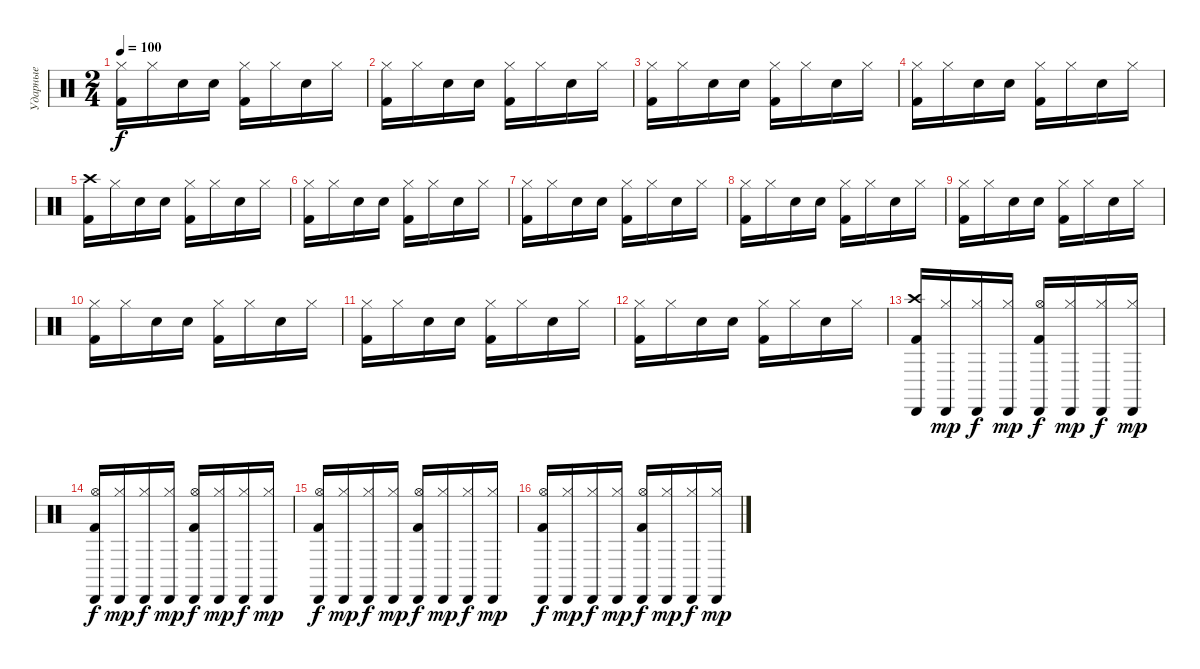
\track ("Ударные" "Ударные") {instrument percussion}
\staff {score}
\articulation defaults
\ts (2 4)
\tempo 100
\clef neutral
\ks c
("Hi-Hat (closed)" "Kick (hit) 2").16{dy f} "Hi-Hat (closed)".16 "Electric Snare (hit)".16 "Electric Snare (hit)".16 ("Kick (hit) 2" "Hi-Hat (closed)").16 "Hi-Hat (closed)".16 "Electric Snare (hit)".16 "Hi-Hat (closed)".16 |
("Hi-Hat (closed)" "Kick (hit) 2").16 "Hi-Hat (closed)".16 "Electric Snare (hit)".16 "Electric Snare (hit)".16 ("Kick (hit) 2" "Hi-Hat (closed)").16 "Hi-Hat (closed)".16 "Electric Snare (hit)".16 "Hi-Hat (closed)".16 |
("Hi-Hat (closed)" "Kick (hit) 2").16 "Hi-Hat (closed)".16 "Electric Snare (hit)".16 "Electric Snare (hit)".16 ("Kick (hit) 2" "Hi-Hat (closed)").16 "Hi-Hat (closed)".16 "Electric Snare (hit)".16 "Hi-Hat (closed)".16 |
("Hi-Hat (closed)" "Kick (hit) 2").16 "Hi-Hat (closed)".16 "Electric Snare (hit)".16 "Electric Snare (hit)".16 ("Kick (hit) 2" "Hi-Hat (closed)").16 "Hi-Hat (closed)".16 "Electric Snare (hit)".16 "Hi-Hat (closed)".16 |
("Crash high (hit)" "Kick (hit) 2").16 "Hi-Hat (closed)".16 "Electric Snare (hit)".16 "Electric Snare (hit)".16 ("Kick (hit) 2" "Hi-Hat (closed)").16 "Hi-Hat (closed)".16 "Electric Snare (hit)".16 "Hi-Hat (closed)".16 |
("Hi-Hat (closed)" "Kick (hit) 2").16 "Hi-Hat (closed)".16 "Electric Snare (hit)".16 "Electric Snare (hit)".16 ("Kick (hit) 2" "Hi-Hat (closed)").16 "Hi-Hat (closed)".16 "Electric Snare (hit)".16 "Hi-Hat (closed)".16 |
("Hi-Hat (closed)" "Kick (hit) 2").16 "Hi-Hat (closed)".16 "Electric Snare (hit)".16 "Electric Snare (hit)".16 ("Kick (hit) 2" "Hi-Hat (closed)").16 "Hi-Hat (closed)".16 "Electric Snare (hit)".16 "Hi-Hat (closed)".16 |
("Hi-Hat (closed)" "Kick (hit) 2").16 "Hi-Hat (closed)".16 "Electric Snare (hit)".16 "Electric Snare (hit)".16 ("Kick (hit) 2" "Hi-Hat (closed)").16 "Hi-Hat (closed)".16 "Electric Snare (hit)".16 "Hi-Hat (closed)".16 |
("Hi-Hat (closed)" "Kick (hit) 2").16 "Hi-Hat (closed)".16 "Electric Snare (hit)".16 "Electric Snare (hit)".16 ("Kick (hit) 2" "Hi-Hat (closed)").16 "Hi-Hat (closed)".16 "Electric Snare (hit)".16 "Hi-Hat (closed)".16 |
("Hi-Hat (closed)" "Kick (hit) 2").16 "Hi-Hat (closed)".16 "Electric Snare (hit)".16 "Electric Snare (hit)".16 ("Kick (hit) 2" "Hi-Hat (closed)").16 "Hi-Hat (closed)".16 "Electric Snare (hit)".16 "Hi-Hat (closed)".16 |
("Hi-Hat (closed)" "Kick (hit) 2").16 "Hi-Hat (closed)".16 "Electric Snare (hit)".16 "Electric Snare (hit)".16 ("Kick (hit) 2" "Hi-Hat (closed)").16 "Hi-Hat (closed)".16 "Electric Snare (hit)".16 "Hi-Hat (closed)".16 |
("Hi-Hat (closed)" "Kick (hit) 2").16 "Hi-Hat (closed)".16 "Electric Snare (hit)".16 "Electric Snare (hit)".16 ("Kick (hit) 2" "Hi-Hat (closed)").16 "Hi-Hat (closed)".16 "Electric Snare (hit)".16 "Hi-Hat (closed)".16 |
("Kick (hit) 2" "Cabasa (hit)" "Crash high (hit)").16 ("Cabasa (hit)" "Hi-Hat (closed)").16{dy mp} ("Hi-Hat (closed)" "Cabasa (hit)").16{dy f} ("Cabasa (hit)" "Hi-Hat (closed)").16{dy mp} ("Hi-Hat (open)" "Cabasa (hit)" "Kick (hit) 2").16{dy f} ("Hi-Hat (closed)" "Cabasa (hit)").16{dy mp} ("Hi-Hat (closed)" "Cabasa (hit)").16{dy f} ("Hi-Hat (closed)" "Cabasa (hit)").16{dy mp} |
("Kick (hit) 2" "Cabasa (hit)" "Hi-Hat (open)").16{dy f} ("Cabasa (hit)" "Hi-Hat (closed)").16{dy mp} ("Hi-Hat (closed)" "Cabasa (hit)").16{dy f} ("Cabasa (hit)" "Hi-Hat (closed)").16{dy mp} ("Hi-Hat (open)" "Cabasa (hit)" "Kick (hit) 2").16{dy f} ("Hi-Hat (closed)" "Cabasa (hit)").16{dy mp} ("Hi-Hat (closed)" "Cabasa (hit)").16{dy f} ("Hi-Hat (closed)" "Cabasa (hit)").16{dy mp} |
("Kick (hit) 2" "Cabasa (hit)" "Hi-Hat (open)").16{dy f} ("Cabasa (hit)" "Hi-Hat (closed)").16{dy mp} ("Hi-Hat (closed)" "Cabasa (hit)").16{dy f} ("Cabasa (hit)" "Hi-Hat (closed)").16{dy mp} ("Hi-Hat (open)" "Cabasa (hit)" "Kick (hit) 2").16{dy f} ("Hi-Hat (closed)" "Cabasa (hit)").16{dy mp} ("Hi-Hat (closed)" "Cabasa (hit)").16{dy f} ("Hi-Hat (closed)" "Cabasa (hit)").16{dy mp} |
("Kick (hit) 2" "Cabasa (hit)" "Hi-Hat (open)").16{dy f} ("Cabasa (hit)" "Hi-Hat (closed)").16{dy mp} ("Hi-Hat (closed)" "Cabasa (hit)").16{dy f} ("Cabasa (hit)" "Hi-Hat (closed)").16{dy mp} ("Hi-Hat (open)" "Cabasa (hit)" "Kick (hit) 2").16{dy f} ("Hi-Hat (closed)" "Cabasa (hit)").16{dy mp} ("Hi-Hat (closed)" "Cabasa (hit)").16{dy f} ("Hi-Hat (closed)" "Cabasa (hit)").16{dy mp}
